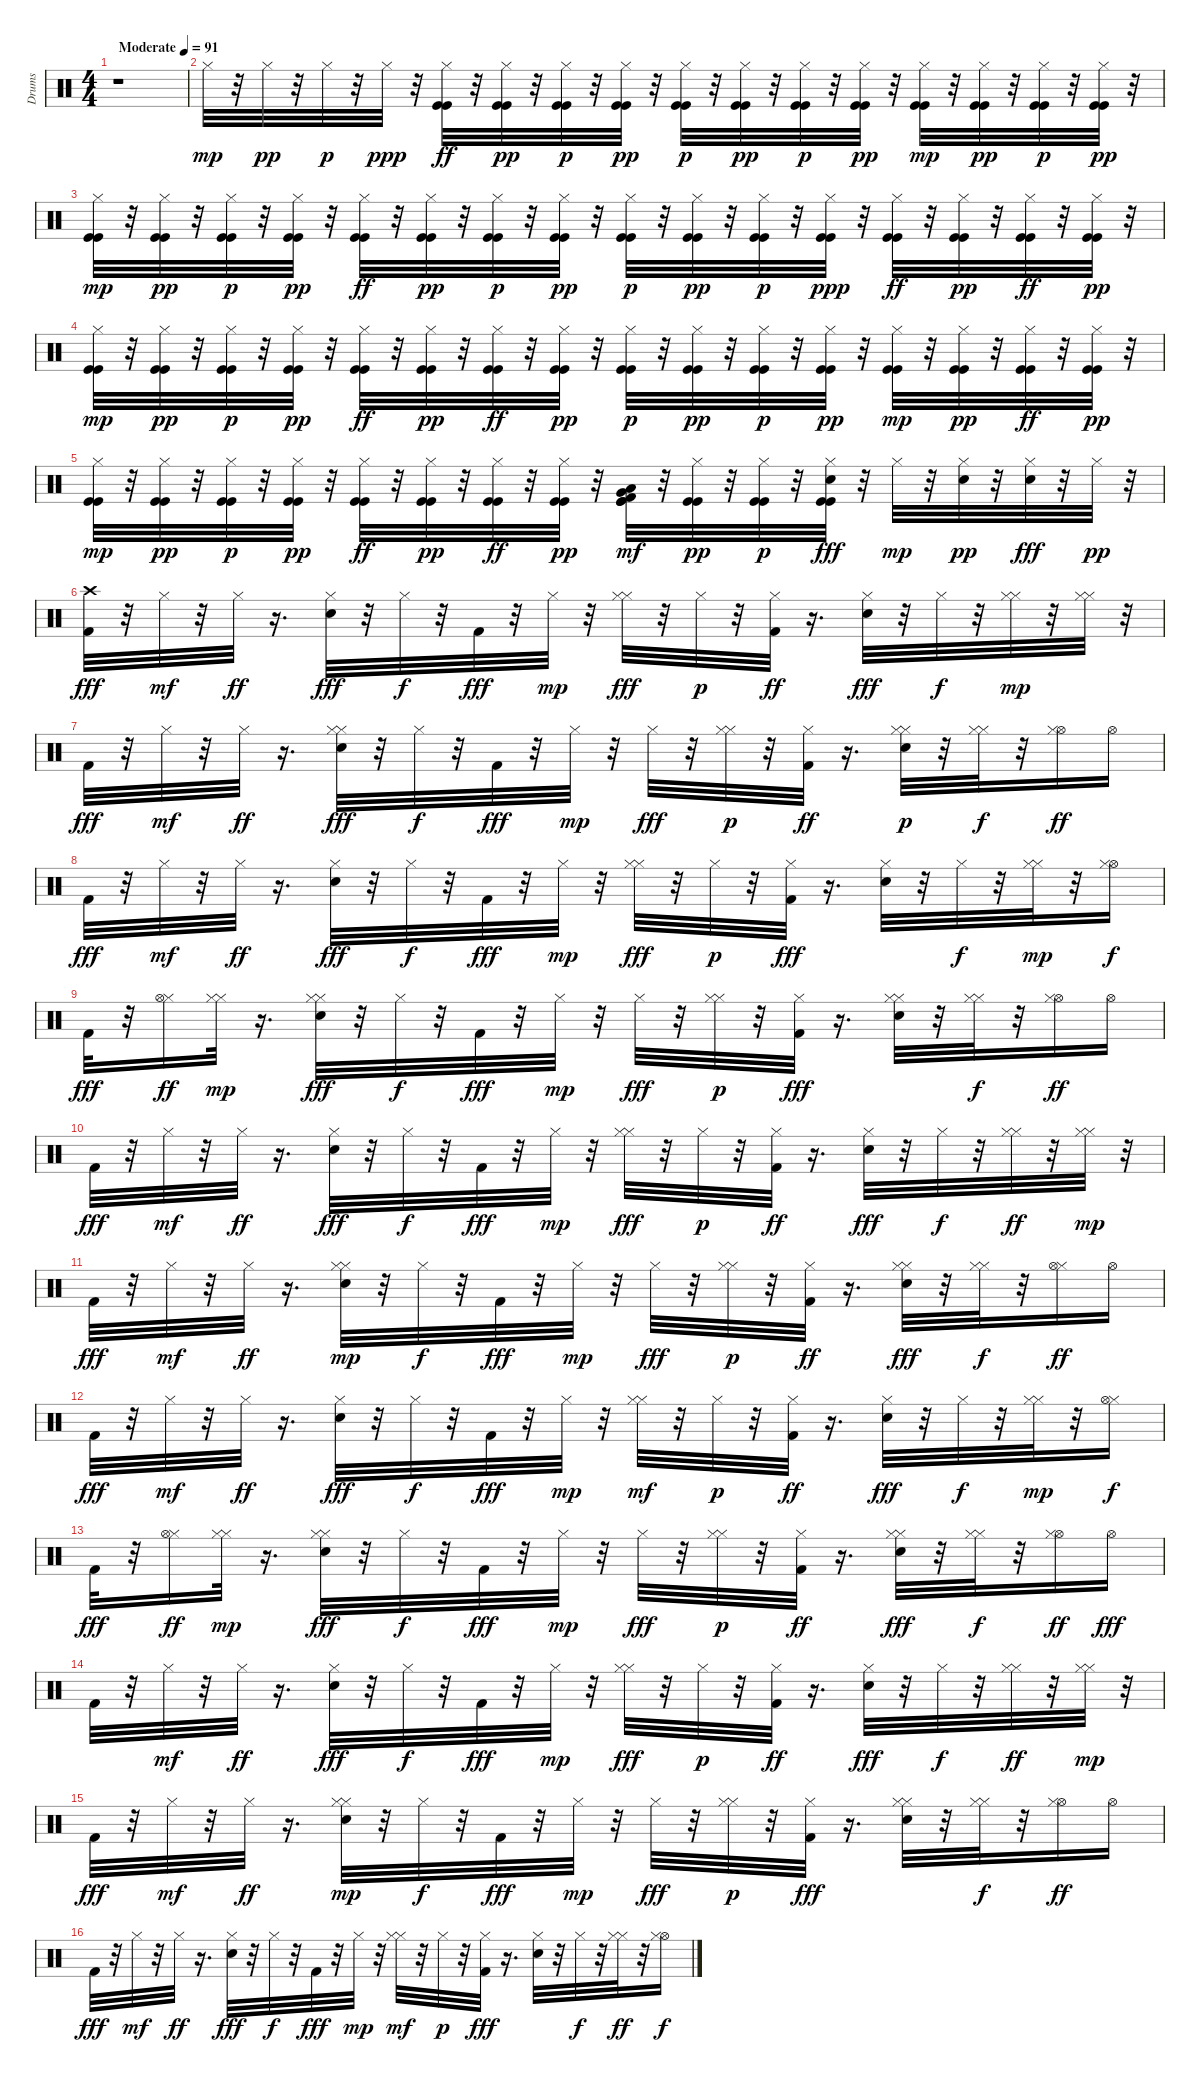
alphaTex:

\track ("Drums" "Drums") {instrument percussion}
\staff {score}
\articulation defaults
\ts (4 4)
\tempo (91 "Moderate")
\clef neutral
\ks c
r.1{dy mp} |
"Hi-Hat (closed)".32 r.32 "Hi-Hat (closed)".32{dy pp} r.32 "Hi-Hat (closed)".32{dy p} r.32 "Hi-Hat (closed)".32{dy ppp} r.32 ("Kick (hit)" "Hi-Hat (closed)" "Kick (hit)").32{dy ff} r.32 ("Kick (hit)" "Hi-Hat (closed)" "Kick (hit)").32{dy pp} r.32 ("Kick (hit)" "Kick (hit)" "Hi-Hat (closed)").32{dy p} r.32 ("Kick (hit)" "Kick (hit)" "Hi-Hat (closed)").32{dy pp} r.32 ("Kick (hit)" "Hi-Hat (closed)" "Kick (hit)").32{dy p} r.32 ("Kick (hit)" "Hi-Hat (closed)" "Kick (hit)").32{dy pp} r.32 ("Kick (hit)" "Kick (hit)" "Hi-Hat (closed)").32{dy p} r.32 ("Kick (hit)" "Hi-Hat (closed)" "Kick (hit)").32{dy pp} r.32 ("Kick (hit)" "Kick (hit)" "Hi-Hat (closed)").32{dy mp} r.32 ("Kick (hit)" "Hi-Hat (closed)" "Kick (hit)").32{dy pp} r.32 ("Kick (hit)" "Kick (hit)" "Hi-Hat (closed)").32{dy p} r.32 ("Kick (hit)" "Hi-Hat (closed)" "Kick (hit)").32{dy pp} r.32 |
("Kick (hit)" "Kick (hit)" "Hi-Hat (closed)").32{dy mp} r.32 ("Kick (hit)" "Kick (hit)" "Hi-Hat (closed)").32{dy pp} r.32 ("Kick (hit)" "Hi-Hat (closed)" "Kick (hit)").32{dy p} r.32 ("Kick (hit)" "Hi-Hat (closed)" "Kick (hit)").32{dy pp} r.32 ("Hi-Hat (closed)" "Kick (hit)" "Kick (hit)").32{dy ff} r.32 ("Hi-Hat (closed)" "Kick (hit)" "Kick (hit)").32{dy pp} r.32 ("Kick (hit)" "Kick (hit)" "Hi-Hat (closed)").32{dy p} r.32 ("Hi-Hat (closed)" "Kick (hit)" "Kick (hit)").32{dy pp} r.32 ("Hi-Hat (closed)" "Kick (hit)" "Kick (hit)").32{dy p} r.32 ("Hi-Hat (closed)" "Kick (hit)" "Kick (hit)").32{dy pp} r.32 ("Kick (hit)" "Hi-Hat (closed)" "Kick (hit)").32{dy p} r.32 ("Kick (hit)" "Kick (hit)" "Hi-Hat (closed)").32{dy ppp} r.32 ("Hi-Hat (closed)" "Kick (hit)" "Kick (hit)").32{dy ff} r.32 ("Hi-Hat (closed)" "Kick (hit)" "Kick (hit)").32{dy pp} r.32 ("Kick (hit)" "Hi-Hat (closed)" "Kick (hit)").32{dy ff} r.32 ("Hi-Hat (closed)" "Kick (hit)" "Kick (hit)").32{dy pp} r.32 |
("Kick (hit)" "Kick (hit)" "Hi-Hat (closed)").32{dy mp} r.32 ("Kick (hit)" "Hi-Hat (closed)" "Kick (hit)").32{dy pp} r.32 ("Kick (hit)" "Hi-Hat (closed)" "Kick (hit)").32{dy p} r.32 ("Hi-Hat (closed)" "Kick (hit)" "Kick (hit)").32{dy pp} r.32 ("Hi-Hat (closed)" "Kick (hit)" "Kick (hit)").32{dy ff} r.32 ("Kick (hit)" "Kick (hit)" "Hi-Hat (closed)").32{dy pp} r.32 ("Hi-Hat (closed)" "Kick (hit)" "Kick (hit)").32{dy ff} r.32 ("Hi-Hat (closed)" "Kick (hit)" "Kick (hit)").32{dy pp} r.32 ("Hi-Hat (closed)" "Kick (hit)" "Kick (hit)").32{dy p} r.32 ("Kick (hit)" "Kick (hit)" "Hi-Hat (closed)").32{dy pp} r.32 ("Kick (hit)" "Hi-Hat (closed)" "Kick (hit)").32{dy p} r.32 ("Hi-Hat (closed)" "Kick (hit)" "Kick (hit)").32{dy pp} r.32 ("Kick (hit)" "Kick (hit)" "Hi-Hat (closed)").32{dy mp} r.32 ("Kick (hit)" "Kick (hit)" "Hi-Hat (closed)").32{dy pp} r.32 ("Hi-Hat (closed)" "Kick (hit)" "Kick (hit)").32{dy ff} r.32 ("Kick (hit)" "Hi-Hat (closed)" "Kick (hit)").32{dy pp} r.32 |
("Kick (hit)" "Kick (hit)" "Hi-Hat (closed)").32{dy mp} r.32 ("Kick (hit)" "Kick (hit)" "Hi-Hat (closed)").32{dy pp} r.32 ("Hi-Hat (closed)" "Kick (hit)" "Kick (hit)").32{dy p} r.32 ("Hi-Hat (closed)" "Kick (hit)" "Kick (hit)").32{dy pp} r.32 ("Kick (hit)" "Hi-Hat (closed)" "Kick (hit)").32{dy ff} r.32 ("Hi-Hat (closed)" "Kick (hit)" "Kick (hit)").32{dy pp} r.32 ("Hi-Hat (closed)" "Kick (hit)" "Kick (hit)").32{dy ff} r.32 ("Kick (hit)" "Hi-Hat (closed)" "Kick (hit)").32{dy pp} r.32 ("Low Tom (hit)" "Kick (hit) 2" "Kick (hit)" "Kick (hit)" "Very Low Tom (hit)").32{dy mf} r.32 ("Kick (hit)" "Hi-Hat (closed)" "Kick (hit)").32{dy pp} r.32 ("Kick (hit)" "Hi-Hat (closed)" "Kick (hit)").32{dy p} r.32 ("Kick (hit)" "Kick (hit)" "Hi-Hat (closed)" "Snare (hit) 2").32{dy fff} r.32 "Hi-Hat (closed)".32{dy mp} r.32 ("Snare (hit) 2" "Hi-Hat (closed)").32{dy pp} r.32 ("Hi-Hat (closed)" "Snare (hit) 2").32{dy fff} r.32 "Hi-Hat (closed)".32{dy pp} r.32 |
("Crash high (hit)" "Kick (hit) 2").32{dy fff} r.32 "Hi-Hat (closed)".32{dy mf} r.32 "Hi-Hat (closed)".32{dy ff} r.16{d} ("Hi-Hat (closed)" "Snare (hit) 2").32{dy fff} r.32 "Hi-Hat (closed)".32{dy f} r.32 "Kick (hit) 2".32{dy fff} r.32 "Hi-Hat (closed)".32{dy mp} r.32 ("Hi-Hat (closed)" "Hi-Hat (closed)").32{dy fff} r.32 "Hi-Hat (closed)".32{dy p} r.32 ("Kick (hit) 2" "Hi-Hat (closed)").32{dy ff} r.16{d} ("Hi-Hat (closed)" "Snare (hit) 2").32{dy fff} r.32 "Hi-Hat (closed)".32{dy f} r.32 ("Hi-Hat (closed)" "Hi-Hat (closed)").32{dy mp} r.32 ("Hi-Hat (closed)" "Hi-Hat (closed)").32 r.32 |
"Kick (hit) 2".32{dy fff} r.32 "Hi-Hat (closed)".32{dy mf} r.32 "Hi-Hat (closed)".32{dy ff} r.16{d} ("Snare (hit) 2" "Hi-Hat (closed)" "Hi-Hat (closed)").32{dy fff} r.32 "Hi-Hat (closed)".32{dy f} r.32 "Kick (hit) 2".32{dy fff} r.32 "Hi-Hat (closed)".32{dy mp} r.32 "Hi-Hat (closed)".32{dy fff} r.32 ("Hi-Hat (closed)" "Hi-Hat (closed)").32{dy p} r.32 ("Kick (hit) 2" "Hi-Hat (closed)").32{dy ff} r.16{d} ("Snare (hit) 2" "Hi-Hat (closed)" "Hi-Hat (closed)").32{dy p} r.32 ("Hi-Hat (closed)" "Hi-Hat (closed)").32{dy f} r.32 ("Hi-Hat (open)" "Hi-Hat (closed)").16{dy ff} "Hi-Hat (open)".16 |
"Kick (hit) 2".32{dy fff} r.32 "Hi-Hat (closed)".32{dy mf} r.32 "Hi-Hat (closed)".32{dy ff} r.16{d} ("Hi-Hat (closed)" "Snare (hit) 2").32{dy fff} r.32 "Hi-Hat (closed)".32{dy f} r.32 "Kick (hit) 2".32{dy fff} r.32 "Hi-Hat (closed)".32{dy mp} r.32 ("Hi-Hat (closed)" "Hi-Hat (closed)").32{dy fff} r.32 "Hi-Hat (closed)".32{dy p} r.32 ("Hi-Hat (closed)" "Kick (hit) 2").32{dy fff} r.16{d} ("Snare (hit) 2" "Hi-Hat (closed)").32 r.32 "Hi-Hat (closed)".32{dy f} r.32 ("Hi-Hat (closed)" "Hi-Hat (closed)").32{dy mp} r.32 ("Hi-Hat (open)" "Hi-Hat (closed)").16{dy f} |
"Kick (hit) 2".32{dy fff} r.32 ("Hi-Hat (closed)" "Hi-Hat (open)").16{dy ff} ("Hi-Hat (closed)" "Hi-Hat (closed)").32{dy mp} r.16{d} ("Hi-Hat (closed)" "Hi-Hat (closed)" "Snare (hit) 2").32{dy fff} r.32 "Hi-Hat (closed)".32{dy f} r.32 "Kick (hit) 2".32{dy fff} r.32 "Hi-Hat (closed)".32{dy mp} r.32 "Hi-Hat (closed)".32{dy fff} r.32 ("Hi-Hat (closed)" "Hi-Hat (closed)").32{dy p} r.32 ("Hi-Hat (closed)" "Kick (hit) 2").32{dy fff} r.16{d} ("Hi-Hat (closed)" "Hi-Hat (closed)" "Snare (hit) 2").32 r.32 ("Hi-Hat (closed)" "Hi-Hat (closed)").32{dy f} r.32 ("Hi-Hat (open)" "Hi-Hat (closed)").16{dy ff} "Hi-Hat (open)".16 |
"Kick (hit) 2".32{dy fff} r.32 "Hi-Hat (closed)".32{dy mf} r.32 "Hi-Hat (closed)".32{dy ff} r.16{d} ("Snare (hit) 2" "Hi-Hat (closed)").32{dy fff} r.32 "Hi-Hat (closed)".32{dy f} r.32 "Kick (hit) 2".32{dy fff} r.32 "Hi-Hat (closed)".32{dy mp} r.32 ("Hi-Hat (closed)" "Hi-Hat (closed)").32{dy fff} r.32 "Hi-Hat (closed)".32{dy p} r.32 ("Kick (hit) 2" "Hi-Hat (closed)").32{dy ff} r.16{d} ("Snare (hit) 2" "Hi-Hat (closed)").32{dy fff} r.32 "Hi-Hat (closed)".32{dy f} r.32 ("Hi-Hat (closed)" "Hi-Hat (closed)").32{dy ff} r.32 ("Hi-Hat (closed)" "Hi-Hat (closed)").32{dy mp} r.32 |
"Kick (hit) 2".32{dy fff} r.32 "Hi-Hat (closed)".32{dy mf} r.32 "Hi-Hat (closed)".32{dy ff} r.16{d} ("Hi-Hat (closed)" "Snare (hit) 2" "Hi-Hat (closed)").32{dy mp} r.32 "Hi-Hat (closed)".32{dy f} r.32 "Kick (hit) 2".32{dy fff} r.32 "Hi-Hat (closed)".32{dy mp} r.32 "Hi-Hat (closed)".32{dy fff} r.32 ("Hi-Hat (closed)" "Hi-Hat (closed)").32{dy p} r.32 ("Kick (hit) 2" "Hi-Hat (closed)").32{dy ff} r.16{d} ("Hi-Hat (closed)" "Snare (hit) 2" "Hi-Hat (closed)").32{dy fff} r.32 ("Hi-Hat (closed)" "Hi-Hat (closed)").32{dy f} r.32 ("Hi-Hat (closed)" "Hi-Hat (open)").16{dy ff} "Hi-Hat (open)".16 |
"Kick (hit) 2".32{dy fff} r.32 "Hi-Hat (closed)".32{dy mf} r.32 "Hi-Hat (closed)".32{dy ff} r.16{d} ("Hi-Hat (closed)" "Snare (hit) 2").32{dy fff} r.32 "Hi-Hat (closed)".32{dy f} r.32 "Kick (hit) 2".32{dy fff} r.32 "Hi-Hat (closed)".32{dy mp} r.32 ("Hi-Hat (closed)" "Hi-Hat (closed)").32{dy mf} r.32 "Hi-Hat (closed)".32{dy p} r.32 ("Kick (hit) 2" "Hi-Hat (closed)").32{dy ff} r.16{d} ("Snare (hit) 2" "Hi-Hat (closed)").32{dy fff} r.32 "Hi-Hat (closed)".32{dy f} r.32 ("Hi-Hat (closed)" "Hi-Hat (closed)").32{dy mp} r.32 ("Hi-Hat (closed)" "Hi-Hat (open)").16{dy f} |
"Kick (hit) 2".32{dy fff} r.32 ("Hi-Hat (closed)" "Hi-Hat (open)").16{dy ff} ("Hi-Hat (closed)" "Hi-Hat (closed)").32{dy mp} r.16{d} ("Hi-Hat (closed)" "Hi-Hat (closed)" "Snare (hit) 2").32{dy fff} r.32 "Hi-Hat (closed)".32{dy f} r.32 "Kick (hit) 2".32{dy fff} r.32 "Hi-Hat (closed)".32{dy mp} r.32 "Hi-Hat (closed)".32{dy fff} r.32 ("Hi-Hat (closed)" "Hi-Hat (closed)").32{dy p} r.32 ("Kick (hit) 2" "Hi-Hat (closed)").32{dy ff} r.16{d} ("Hi-Hat (closed)" "Snare (hit) 2" "Hi-Hat (closed)").32{dy fff} r.32 ("Hi-Hat (closed)" "Hi-Hat (closed)").32{dy f} r.32 ("Hi-Hat (open)" "Hi-Hat (closed)").16{dy ff} "Hi-Hat (open)".16{dy fff} |
"Kick (hit) 2".32 r.32 "Hi-Hat (closed)".32{dy mf} r.32 "Hi-Hat (closed)".32{dy ff} r.16{d} ("Snare (hit) 2" "Hi-Hat (closed)").32{dy fff} r.32 "Hi-Hat (closed)".32{dy f} r.32 "Kick (hit) 2".32{dy fff} r.32 "Hi-Hat (closed)".32{dy mp} r.32 ("Hi-Hat (closed)" "Hi-Hat (closed)").32{dy fff} r.32 "Hi-Hat (closed)".32{dy p} r.32 ("Kick (hit) 2" "Hi-Hat (closed)").32{dy ff} r.16{d} ("Snare (hit) 2" "Hi-Hat (closed)").32{dy fff} r.32 "Hi-Hat (closed)".32{dy f} r.32 ("Hi-Hat (closed)" "Hi-Hat (closed)").32{dy ff} r.32 ("Hi-Hat (closed)" "Hi-Hat (closed)").32{dy mp} r.32 |
"Kick (hit) 2".32{dy fff} r.32 "Hi-Hat (closed)".32{dy mf} r.32 "Hi-Hat (closed)".32{dy ff} r.16{d} ("Hi-Hat (closed)" "Snare (hit) 2" "Hi-Hat (closed)").32{dy mp} r.32 "Hi-Hat (closed)".32{dy f} r.32 "Kick (hit) 2".32{dy fff} r.32 "Hi-Hat (closed)".32{dy mp} r.32 "Hi-Hat (closed)".32{dy fff} r.32 ("Hi-Hat (closed)" "Hi-Hat (closed)").32{dy p} r.32 ("Hi-Hat (closed)" "Kick (hit) 2").32{dy fff} r.16{d} ("Hi-Hat (closed)" "Snare (hit) 2" "Hi-Hat (closed)").32 r.32 ("Hi-Hat (closed)" "Hi-Hat (closed)").32{dy f} r.32 ("Hi-Hat (open)" "Hi-Hat (closed)").16{dy ff} "Hi-Hat (open)".16 |
"Kick (hit) 2".32{dy fff} r.32 "Hi-Hat (closed)".32{dy mf} r.32 "Hi-Hat (closed)".32{dy ff} r.16{d} ("Hi-Hat (closed)" "Snare (hit) 2").32{dy fff} r.32 "Hi-Hat (closed)".32{dy f} r.32 "Kick (hit) 2".32{dy fff} r.32 "Hi-Hat (closed)".32{dy mp} r.32 ("Hi-Hat (closed)" "Hi-Hat (closed)").32{dy mf} r.32 "Hi-Hat (closed)".32{dy p} r.32 ("Hi-Hat (closed)" "Kick (hit) 2").32{dy fff} r.16{d} ("Snare (hit) 2" "Hi-Hat (closed)").32 r.32 "Hi-Hat (closed)".32{dy f} r.32 ("Hi-Hat (closed)" "Hi-Hat (closed)").32{dy ff} r.32 ("Hi-Hat (open)" "Hi-Hat (closed)").16{dy f}
